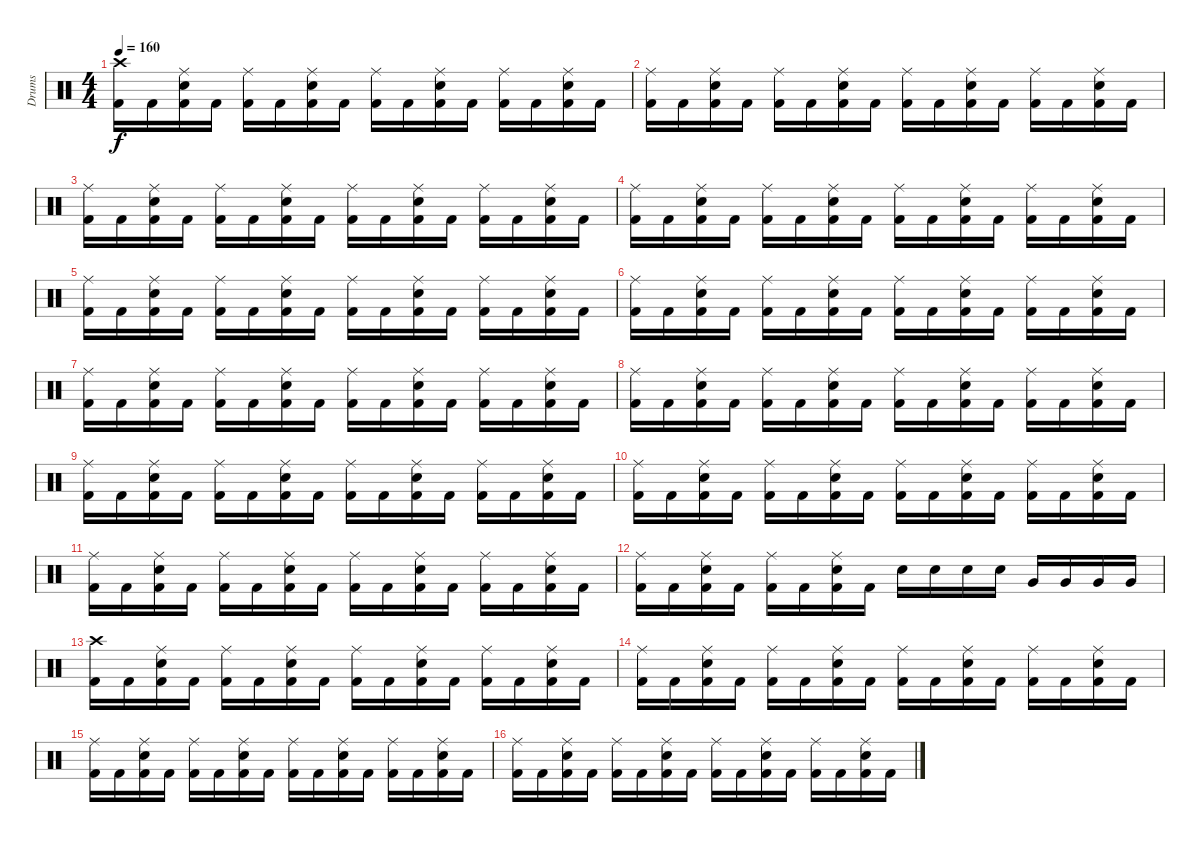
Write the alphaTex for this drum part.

\track ("Drums" "Drums") {instrument percussion}
\staff {score}
\articulation defaults
\ts (4 4)
\tempo 160
\clef neutral
\ks c
("Crash high (hit)" "Kick (hit) 2").16{dy f} "Kick (hit) 2".16 ("Ride (middle)" "Electric Snare (hit)" "Kick (hit) 2").16 "Kick (hit) 2".16 ("Ride (middle)" "Kick (hit) 2").16 "Kick (hit) 2".16 ("Ride (middle)" "Electric Snare (hit)" "Kick (hit) 2").16 "Kick (hit) 2".16 ("Ride (middle)" "Kick (hit) 2").16 "Kick (hit) 2".16 ("Ride (middle)" "Electric Snare (hit)" "Kick (hit) 2").16 "Kick (hit) 2".16 ("Ride (middle)" "Kick (hit) 2").16 "Kick (hit) 2".16 ("Ride (middle)" "Electric Snare (hit)" "Kick (hit) 2").16 "Kick (hit) 2".16 |
("Ride (middle)" "Kick (hit) 2").16 "Kick (hit) 2".16 ("Ride (middle)" "Electric Snare (hit)" "Kick (hit) 2").16 "Kick (hit) 2".16 ("Ride (middle)" "Kick (hit) 2").16 "Kick (hit) 2".16 ("Ride (middle)" "Electric Snare (hit)" "Kick (hit) 2").16 "Kick (hit) 2".16 ("Ride (middle)" "Kick (hit) 2").16 "Kick (hit) 2".16 ("Ride (middle)" "Electric Snare (hit)" "Kick (hit) 2").16 "Kick (hit) 2".16 ("Ride (middle)" "Kick (hit) 2").16 "Kick (hit) 2".16 ("Ride (middle)" "Electric Snare (hit)" "Kick (hit) 2").16 "Kick (hit) 2".16 |
("Ride (middle)" "Kick (hit) 2").16 "Kick (hit) 2".16 ("Ride (middle)" "Electric Snare (hit)" "Kick (hit) 2").16 "Kick (hit) 2".16 ("Ride (middle)" "Kick (hit) 2").16 "Kick (hit) 2".16 ("Ride (middle)" "Electric Snare (hit)" "Kick (hit) 2").16 "Kick (hit) 2".16 ("Ride (middle)" "Kick (hit) 2").16 "Kick (hit) 2".16 ("Ride (middle)" "Electric Snare (hit)" "Kick (hit) 2").16 "Kick (hit) 2".16 ("Ride (middle)" "Kick (hit) 2").16 "Kick (hit) 2".16 ("Ride (middle)" "Electric Snare (hit)" "Kick (hit) 2").16 "Kick (hit) 2".16 |
("Ride (middle)" "Kick (hit) 2").16 "Kick (hit) 2".16 ("Ride (middle)" "Electric Snare (hit)" "Kick (hit) 2").16 "Kick (hit) 2".16 ("Ride (middle)" "Kick (hit) 2").16 "Kick (hit) 2".16 ("Ride (middle)" "Electric Snare (hit)" "Kick (hit) 2").16 "Kick (hit) 2".16 ("Ride (middle)" "Kick (hit) 2").16 "Kick (hit) 2".16 ("Ride (middle)" "Electric Snare (hit)" "Kick (hit) 2").16 "Kick (hit) 2".16 ("Ride (middle)" "Kick (hit) 2").16 "Kick (hit) 2".16 ("Ride (middle)" "Electric Snare (hit)" "Kick (hit) 2").16 "Kick (hit) 2".16 |
("Ride (middle)" "Kick (hit) 2").16 "Kick (hit) 2".16 ("Ride (middle)" "Electric Snare (hit)" "Kick (hit) 2").16 "Kick (hit) 2".16 ("Ride (middle)" "Kick (hit) 2").16 "Kick (hit) 2".16 ("Ride (middle)" "Electric Snare (hit)" "Kick (hit) 2").16 "Kick (hit) 2".16 ("Ride (middle)" "Kick (hit) 2").16 "Kick (hit) 2".16 ("Ride (middle)" "Electric Snare (hit)" "Kick (hit) 2").16 "Kick (hit) 2".16 ("Ride (middle)" "Kick (hit) 2").16 "Kick (hit) 2".16 ("Ride (middle)" "Electric Snare (hit)" "Kick (hit) 2").16 "Kick (hit) 2".16 |
("Ride (middle)" "Kick (hit) 2").16 "Kick (hit) 2".16 ("Ride (middle)" "Electric Snare (hit)" "Kick (hit) 2").16 "Kick (hit) 2".16 ("Ride (middle)" "Kick (hit) 2").16 "Kick (hit) 2".16 ("Ride (middle)" "Electric Snare (hit)" "Kick (hit) 2").16 "Kick (hit) 2".16 ("Ride (middle)" "Kick (hit) 2").16 "Kick (hit) 2".16 ("Ride (middle)" "Electric Snare (hit)" "Kick (hit) 2").16 "Kick (hit) 2".16 ("Ride (middle)" "Kick (hit) 2").16 "Kick (hit) 2".16 ("Ride (middle)" "Electric Snare (hit)" "Kick (hit) 2").16 "Kick (hit) 2".16 |
("Ride (middle)" "Kick (hit) 2").16 "Kick (hit) 2".16 ("Ride (middle)" "Electric Snare (hit)" "Kick (hit) 2").16 "Kick (hit) 2".16 ("Ride (middle)" "Kick (hit) 2").16 "Kick (hit) 2".16 ("Ride (middle)" "Electric Snare (hit)" "Kick (hit) 2").16 "Kick (hit) 2".16 ("Ride (middle)" "Kick (hit) 2").16 "Kick (hit) 2".16 ("Ride (middle)" "Electric Snare (hit)" "Kick (hit) 2").16 "Kick (hit) 2".16 ("Ride (middle)" "Kick (hit) 2").16 "Kick (hit) 2".16 ("Ride (middle)" "Electric Snare (hit)" "Kick (hit) 2").16 "Kick (hit) 2".16 |
("Ride (middle)" "Kick (hit) 2").16 "Kick (hit) 2".16 ("Ride (middle)" "Electric Snare (hit)" "Kick (hit) 2").16 "Kick (hit) 2".16 ("Ride (middle)" "Kick (hit) 2").16 "Kick (hit) 2".16 ("Ride (middle)" "Electric Snare (hit)" "Kick (hit) 2").16 "Kick (hit) 2".16 ("Ride (middle)" "Kick (hit) 2").16 "Kick (hit) 2".16 ("Ride (middle)" "Electric Snare (hit)" "Kick (hit) 2").16 "Kick (hit) 2".16 ("Ride (middle)" "Kick (hit) 2").16 "Kick (hit) 2".16 ("Ride (middle)" "Electric Snare (hit)" "Kick (hit) 2").16 "Kick (hit) 2".16 |
("Ride (middle)" "Kick (hit) 2").16 "Kick (hit) 2".16 ("Ride (middle)" "Electric Snare (hit)" "Kick (hit) 2").16 "Kick (hit) 2".16 ("Ride (middle)" "Kick (hit) 2").16 "Kick (hit) 2".16 ("Ride (middle)" "Electric Snare (hit)" "Kick (hit) 2").16 "Kick (hit) 2".16 ("Ride (middle)" "Kick (hit) 2").16 "Kick (hit) 2".16 ("Ride (middle)" "Electric Snare (hit)" "Kick (hit) 2").16 "Kick (hit) 2".16 ("Ride (middle)" "Kick (hit) 2").16 "Kick (hit) 2".16 ("Ride (middle)" "Electric Snare (hit)" "Kick (hit) 2").16 "Kick (hit) 2".16 |
("Ride (middle)" "Kick (hit) 2").16 "Kick (hit) 2".16 ("Ride (middle)" "Electric Snare (hit)" "Kick (hit) 2").16 "Kick (hit) 2".16 ("Ride (middle)" "Kick (hit) 2").16 "Kick (hit) 2".16 ("Ride (middle)" "Electric Snare (hit)" "Kick (hit) 2").16 "Kick (hit) 2".16 ("Ride (middle)" "Kick (hit) 2").16 "Kick (hit) 2".16 ("Ride (middle)" "Electric Snare (hit)" "Kick (hit) 2").16 "Kick (hit) 2".16 ("Ride (middle)" "Kick (hit) 2").16 "Kick (hit) 2".16 ("Ride (middle)" "Electric Snare (hit)" "Kick (hit) 2").16 "Kick (hit) 2".16 |
("Ride (middle)" "Kick (hit) 2").16 "Kick (hit) 2".16 ("Ride (middle)" "Electric Snare (hit)" "Kick (hit) 2").16 "Kick (hit) 2".16 ("Ride (middle)" "Kick (hit) 2").16 "Kick (hit) 2".16 ("Ride (middle)" "Electric Snare (hit)" "Kick (hit) 2").16 "Kick (hit) 2".16 ("Ride (middle)" "Kick (hit) 2").16 "Kick (hit) 2".16 ("Ride (middle)" "Electric Snare (hit)" "Kick (hit) 2").16 "Kick (hit) 2".16 ("Ride (middle)" "Kick (hit) 2").16 "Kick (hit) 2".16 ("Ride (middle)" "Electric Snare (hit)" "Kick (hit) 2").16 "Kick (hit) 2".16 |
("Ride (middle)" "Kick (hit) 2").16 "Kick (hit) 2".16 ("Ride (middle)" "Electric Snare (hit)" "Kick (hit) 2").16 "Kick (hit) 2".16 ("Ride (middle)" "Kick (hit) 2").16 "Kick (hit) 2".16 ("Ride (middle)" "Electric Snare (hit)" "Kick (hit) 2").16 "Kick (hit) 2".16 "Electric Snare (hit)".16 "Electric Snare (hit)".16 "Electric Snare (hit)".16 "Electric Snare (hit)".16 "Very Low Tom (hit)".16 "Very Low Tom (hit)".16 "Very Low Tom (hit)".16 "Very Low Tom (hit)".16 |
("Crash high (hit)" "Kick (hit) 2").16 "Kick (hit) 2".16 ("Ride (middle)" "Electric Snare (hit)" "Kick (hit) 2").16 "Kick (hit) 2".16 ("Ride (middle)" "Kick (hit) 2").16 "Kick (hit) 2".16 ("Ride (middle)" "Electric Snare (hit)" "Kick (hit) 2").16 "Kick (hit) 2".16 ("Ride (middle)" "Kick (hit) 2").16 "Kick (hit) 2".16 ("Ride (middle)" "Electric Snare (hit)" "Kick (hit) 2").16 "Kick (hit) 2".16 ("Ride (middle)" "Kick (hit) 2").16 "Kick (hit) 2".16 ("Ride (middle)" "Electric Snare (hit)" "Kick (hit) 2").16 "Kick (hit) 2".16 |
("Ride (middle)" "Kick (hit) 2").16 "Kick (hit) 2".16 ("Ride (middle)" "Electric Snare (hit)" "Kick (hit) 2").16 "Kick (hit) 2".16 ("Ride (middle)" "Kick (hit) 2").16 "Kick (hit) 2".16 ("Ride (middle)" "Electric Snare (hit)" "Kick (hit) 2").16 "Kick (hit) 2".16 ("Ride (middle)" "Kick (hit) 2").16 "Kick (hit) 2".16 ("Ride (middle)" "Electric Snare (hit)" "Kick (hit) 2").16 "Kick (hit) 2".16 ("Ride (middle)" "Kick (hit) 2").16 "Kick (hit) 2".16 ("Ride (middle)" "Electric Snare (hit)" "Kick (hit) 2").16 "Kick (hit) 2".16 |
("Ride (middle)" "Kick (hit) 2").16 "Kick (hit) 2".16 ("Ride (middle)" "Electric Snare (hit)" "Kick (hit) 2").16 "Kick (hit) 2".16 ("Ride (middle)" "Kick (hit) 2").16 "Kick (hit) 2".16 ("Ride (middle)" "Electric Snare (hit)" "Kick (hit) 2").16 "Kick (hit) 2".16 ("Ride (middle)" "Kick (hit) 2").16 "Kick (hit) 2".16 ("Ride (middle)" "Electric Snare (hit)" "Kick (hit) 2").16 "Kick (hit) 2".16 ("Ride (middle)" "Kick (hit) 2").16 "Kick (hit) 2".16 ("Ride (middle)" "Electric Snare (hit)" "Kick (hit) 2").16 "Kick (hit) 2".16 |
("Ride (middle)" "Kick (hit) 2").16 "Kick (hit) 2".16 ("Ride (middle)" "Electric Snare (hit)" "Kick (hit) 2").16 "Kick (hit) 2".16 ("Ride (middle)" "Kick (hit) 2").16 "Kick (hit) 2".16 ("Ride (middle)" "Electric Snare (hit)" "Kick (hit) 2").16 "Kick (hit) 2".16 ("Ride (middle)" "Kick (hit) 2").16 "Kick (hit) 2".16 ("Ride (middle)" "Electric Snare (hit)" "Kick (hit) 2").16 "Kick (hit) 2".16 ("Ride (middle)" "Kick (hit) 2").16 "Kick (hit) 2".16 ("Ride (middle)" "Electric Snare (hit)" "Kick (hit) 2").16 "Kick (hit) 2".16
